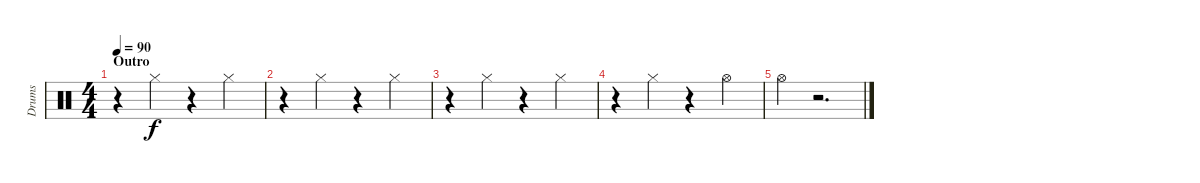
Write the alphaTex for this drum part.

\track ("Drums" "Drums") {instrument percussion}
\staff {score}
\articulation defaults
\ts (4 4)
\section ("" "Outro")
\tempo 90
\clef neutral
\ks c
r.4{dy f} "Hi-Hat (closed)".4 r.4 "Hi-Hat (closed)".4 |
r.4 "Hi-Hat (closed)".4 r.4 "Hi-Hat (closed)".4 |
r.4 "Hi-Hat (closed)".4 r.4 "Hi-Hat (closed)".4 |
r.4 "Hi-Hat (closed)".4 r.4 "Hi-Hat (open)".4 |
"Hi-Hat (open)".4 r.2{d}
